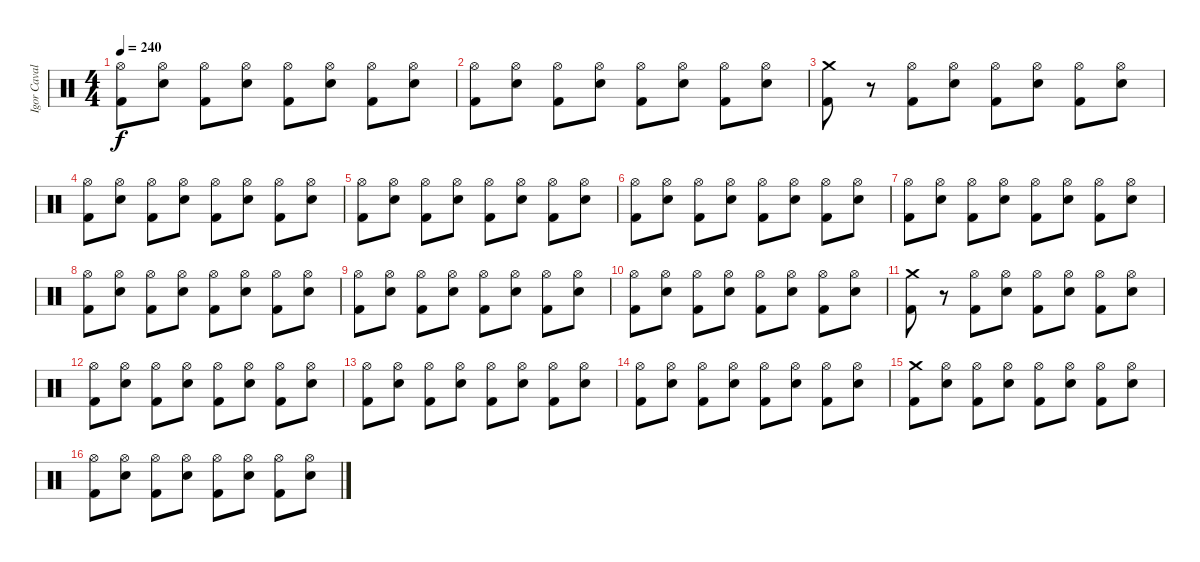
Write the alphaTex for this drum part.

\track ("Igor Cavalera" "Igor Caval") {instrument percussion}
\staff {score}
\articulation defaults
\ts (4 4)
\tempo 240
\clef neutral
\ks c
("Hi-Hat (open)" "Kick (hit) 2").8{dy f} ("Electric Snare (hit)" "Hi-Hat (open)").8 ("Kick (hit) 2" "Hi-Hat (open)").8 ("Electric Snare (hit)" "Hi-Hat (open)").8 ("Kick (hit) 2" "Hi-Hat (open)").8 ("Electric Snare (hit)" "Hi-Hat (open)").8 ("Kick (hit) 2" "Hi-Hat (open)").8 ("Electric Snare (hit)" "Hi-Hat (open)").8 |
("Hi-Hat (open)" "Kick (hit) 2").8 ("Electric Snare (hit)" "Hi-Hat (open)").8 ("Kick (hit) 2" "Hi-Hat (open)").8 ("Electric Snare (hit)" "Hi-Hat (open)").8 ("Kick (hit) 2" "Hi-Hat (open)").8 ("Electric Snare (hit)" "Hi-Hat (open)").8 ("Kick (hit) 2" "Hi-Hat (open)").8 ("Electric Snare (hit)" "Hi-Hat (open)").8 |
("Crash medium (hit)" "Kick (hit) 2").8 r.8 ("Kick (hit) 2" "Hi-Hat (open)").8 ("Electric Snare (hit)" "Hi-Hat (open)").8 ("Kick (hit) 2" "Hi-Hat (open)").8 ("Electric Snare (hit)" "Hi-Hat (open)").8 ("Kick (hit) 2" "Hi-Hat (open)").8 ("Electric Snare (hit)" "Hi-Hat (open)").8 |
("Hi-Hat (open)" "Kick (hit) 2").8 ("Electric Snare (hit)" "Hi-Hat (open)").8 ("Kick (hit) 2" "Hi-Hat (open)").8 ("Electric Snare (hit)" "Hi-Hat (open)").8 ("Kick (hit) 2" "Hi-Hat (open)").8 ("Electric Snare (hit)" "Hi-Hat (open)").8 ("Kick (hit) 2" "Hi-Hat (open)").8 ("Electric Snare (hit)" "Hi-Hat (open)").8 |
("Hi-Hat (open)" "Kick (hit) 2").8 ("Electric Snare (hit)" "Hi-Hat (open)").8 ("Kick (hit) 2" "Hi-Hat (open)").8 ("Electric Snare (hit)" "Hi-Hat (open)").8 ("Kick (hit) 2" "Hi-Hat (open)").8 ("Electric Snare (hit)" "Hi-Hat (open)").8 ("Kick (hit) 2" "Hi-Hat (open)").8 ("Electric Snare (hit)" "Hi-Hat (open)").8 |
("Hi-Hat (open)" "Kick (hit) 2").8 ("Electric Snare (hit)" "Hi-Hat (open)").8 ("Kick (hit) 2" "Hi-Hat (open)").8 ("Electric Snare (hit)" "Hi-Hat (open)").8 ("Kick (hit) 2" "Hi-Hat (open)").8 ("Electric Snare (hit)" "Hi-Hat (open)").8 ("Kick (hit) 2" "Hi-Hat (open)").8 ("Electric Snare (hit)" "Hi-Hat (open)").8 |
("Hi-Hat (open)" "Kick (hit) 2").8 ("Electric Snare (hit)" "Hi-Hat (open)").8 ("Kick (hit) 2" "Hi-Hat (open)").8 ("Electric Snare (hit)" "Hi-Hat (open)").8 ("Kick (hit) 2" "Hi-Hat (open)").8 ("Electric Snare (hit)" "Hi-Hat (open)").8 ("Kick (hit) 2" "Hi-Hat (open)").8 ("Electric Snare (hit)" "Hi-Hat (open)").8 |
("Hi-Hat (open)" "Kick (hit) 2").8 ("Electric Snare (hit)" "Hi-Hat (open)").8 ("Kick (hit) 2" "Hi-Hat (open)").8 ("Electric Snare (hit)" "Hi-Hat (open)").8 ("Kick (hit) 2" "Hi-Hat (open)").8 ("Electric Snare (hit)" "Hi-Hat (open)").8 ("Kick (hit) 2" "Hi-Hat (open)").8 ("Electric Snare (hit)" "Hi-Hat (open)").8 |
("Hi-Hat (open)" "Kick (hit) 2").8 ("Electric Snare (hit)" "Hi-Hat (open)").8 ("Kick (hit) 2" "Hi-Hat (open)").8 ("Electric Snare (hit)" "Hi-Hat (open)").8 ("Kick (hit) 2" "Hi-Hat (open)").8 ("Electric Snare (hit)" "Hi-Hat (open)").8 ("Kick (hit) 2" "Hi-Hat (open)").8 ("Electric Snare (hit)" "Hi-Hat (open)").8 |
("Hi-Hat (open)" "Kick (hit) 2").8 ("Electric Snare (hit)" "Hi-Hat (open)").8 ("Kick (hit) 2" "Hi-Hat (open)").8 ("Electric Snare (hit)" "Hi-Hat (open)").8 ("Kick (hit) 2" "Hi-Hat (open)").8 ("Electric Snare (hit)" "Hi-Hat (open)").8 ("Kick (hit) 2" "Hi-Hat (open)").8 ("Electric Snare (hit)" "Hi-Hat (open)").8 |
("Crash medium (hit)" "Kick (hit) 2").8 r.8 ("Kick (hit) 2" "Hi-Hat (open)").8 ("Electric Snare (hit)" "Hi-Hat (open)").8 ("Kick (hit) 2" "Hi-Hat (open)").8 ("Electric Snare (hit)" "Hi-Hat (open)").8 ("Kick (hit) 2" "Hi-Hat (open)").8 ("Electric Snare (hit)" "Hi-Hat (open)").8 |
("Hi-Hat (open)" "Kick (hit) 2").8 ("Electric Snare (hit)" "Hi-Hat (open)").8 ("Kick (hit) 2" "Hi-Hat (open)").8 ("Electric Snare (hit)" "Hi-Hat (open)").8 ("Kick (hit) 2" "Hi-Hat (open)").8 ("Electric Snare (hit)" "Hi-Hat (open)").8 ("Kick (hit) 2" "Hi-Hat (open)").8 ("Electric Snare (hit)" "Hi-Hat (open)").8 |
("Hi-Hat (open)" "Kick (hit) 2").8 ("Electric Snare (hit)" "Hi-Hat (open)").8 ("Kick (hit) 2" "Hi-Hat (open)").8 ("Electric Snare (hit)" "Hi-Hat (open)").8 ("Kick (hit) 2" "Hi-Hat (open)").8 ("Electric Snare (hit)" "Hi-Hat (open)").8 ("Kick (hit) 2" "Hi-Hat (open)").8 ("Electric Snare (hit)" "Hi-Hat (open)").8 |
("Hi-Hat (open)" "Kick (hit) 2").8 ("Electric Snare (hit)" "Hi-Hat (open)").8 ("Kick (hit) 2" "Hi-Hat (open)").8 ("Electric Snare (hit)" "Hi-Hat (open)").8 ("Kick (hit) 2" "Hi-Hat (open)").8 ("Electric Snare (hit)" "Hi-Hat (open)").8 ("Kick (hit) 2" "Hi-Hat (open)").8 ("Electric Snare (hit)" "Hi-Hat (open)").8 |
("Crash medium (hit)" "Kick (hit) 2").8 ("Electric Snare (hit)" "Hi-Hat (open)").8 ("Kick (hit) 2" "Hi-Hat (open)").8 ("Electric Snare (hit)" "Hi-Hat (open)").8 ("Kick (hit) 2" "Hi-Hat (open)").8 ("Electric Snare (hit)" "Hi-Hat (open)").8 ("Kick (hit) 2" "Hi-Hat (open)").8 ("Electric Snare (hit)" "Hi-Hat (open)").8 |
("Hi-Hat (open)" "Kick (hit) 2").8 ("Electric Snare (hit)" "Hi-Hat (open)").8 ("Kick (hit) 2" "Hi-Hat (open)").8 ("Electric Snare (hit)" "Hi-Hat (open)").8 ("Kick (hit) 2" "Hi-Hat (open)").8 ("Electric Snare (hit)" "Hi-Hat (open)").8 ("Kick (hit) 2" "Hi-Hat (open)").8 ("Electric Snare (hit)" "Hi-Hat (open)").8
